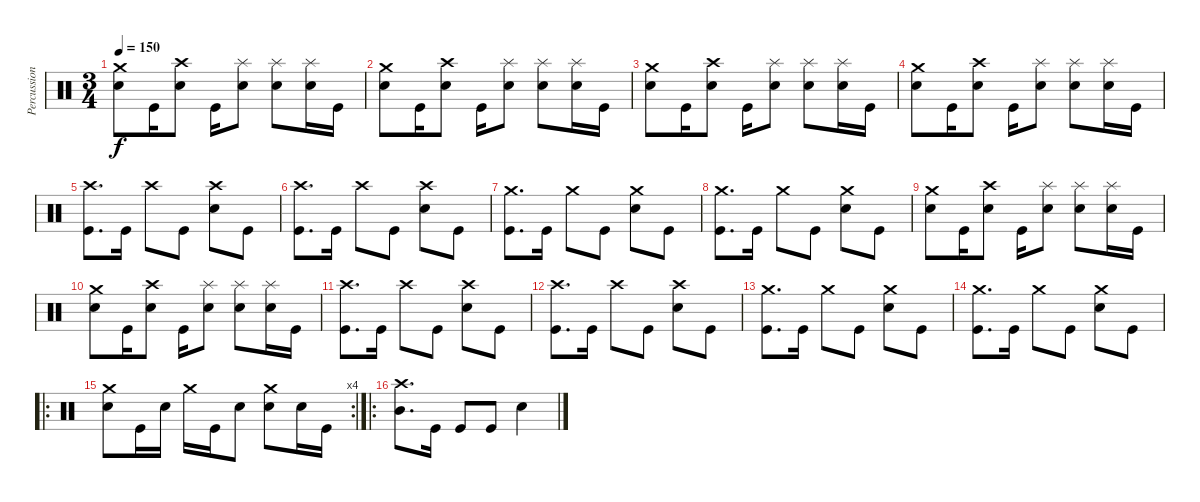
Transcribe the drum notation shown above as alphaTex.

\track ("Percussion" "Percussion") {instrument percussion}
\staff {score}
\articulation defaults
\ts (3 4)
\tempo 150
\clef neutral
\ks c
("Snare (hit) 2" "Crash medium (hit)").8{dy f} "Kick (hit)".16 ("Snare (hit) 2" "Crash high (hit)").8 "Kick (hit)".16 ("Snare (hit) 2" "Splash (hit)").8 ("Snare (hit) 2" "Splash (hit)").8 ("Snare (hit) 2" "Splash (hit)").16 "Kick (hit)".16 |
("Snare (hit) 2" "Crash medium (hit)").8 "Kick (hit)".16 ("Snare (hit) 2" "Crash high (hit)").8 "Kick (hit)".16 ("Snare (hit) 2" "Splash (hit)").8 ("Snare (hit) 2" "Splash (hit)").8 ("Snare (hit) 2" "Splash (hit)").16 "Kick (hit)".16 |
("Snare (hit) 2" "Crash medium (hit)").8 "Kick (hit)".16 ("Snare (hit) 2" "Crash high (hit)").8 "Kick (hit)".16 ("Snare (hit) 2" "Splash (hit)").8 ("Snare (hit) 2" "Splash (hit)").8 ("Snare (hit) 2" "Splash (hit)").16 "Kick (hit)".16 |
("Snare (hit) 2" "Crash medium (hit)").8 "Kick (hit)".16 ("Snare (hit) 2" "Crash high (hit)").8 "Kick (hit)".16 ("Snare (hit) 2" "Splash (hit)").8 ("Snare (hit) 2" "Splash (hit)").8 ("Snare (hit) 2" "Splash (hit)").16 "Kick (hit)".16 |
("Crash high (hit)" "Kick (hit)").8{d} "Kick (hit)".16 "Crash high (hit)".8 "Kick (hit)".8 ("Crash high (hit)" "Snare (hit) 2").8 "Kick (hit)".8 |
("Crash high (hit)" "Kick (hit)").8{d} "Kick (hit)".16 "Crash high (hit)".8 "Kick (hit)".8 ("Crash high (hit)" "Snare (hit) 2").8 "Kick (hit)".8 |
("Crash medium (hit)" "Kick (hit)").8{d} "Kick (hit)".16 "Crash medium (hit)".8 "Kick (hit)".8 ("Crash medium (hit)" "Snare (hit) 2").8 "Kick (hit)".8 |
("Crash medium (hit)" "Kick (hit)").8{d} "Kick (hit)".16 "Crash medium (hit)".8 "Kick (hit)".8 ("Crash medium (hit)" "Snare (hit) 2").8 "Kick (hit)".8 |
("Snare (hit) 2" "Crash medium (hit)").8 "Kick (hit)".16 ("Snare (hit) 2" "Crash high (hit)").8 "Kick (hit)".16 ("Snare (hit) 2" "Splash (hit)").8 ("Snare (hit) 2" "Splash (hit)").8 ("Snare (hit) 2" "Splash (hit)").16 "Kick (hit)".16 |
("Snare (hit) 2" "Crash medium (hit)").8 "Kick (hit)".16 ("Snare (hit) 2" "Crash high (hit)").8 "Kick (hit)".16 ("Snare (hit) 2" "Splash (hit)").8 ("Snare (hit) 2" "Splash (hit)").8 ("Snare (hit) 2" "Splash (hit)").16 "Kick (hit)".16 |
("Crash high (hit)" "Kick (hit)").8{d} "Kick (hit)".16 "Crash high (hit)".8 "Kick (hit)".8 ("Crash high (hit)" "Snare (hit) 2").8 "Kick (hit)".8 |
("Crash high (hit)" "Kick (hit)").8{d} "Kick (hit)".16 "Crash high (hit)".8 "Kick (hit)".8 ("Crash high (hit)" "Snare (hit) 2").8 "Kick (hit)".8 |
("Crash medium (hit)" "Kick (hit)").8{d} "Kick (hit)".16 "Crash medium (hit)".8 "Kick (hit)".8 ("Crash medium (hit)" "Snare (hit) 2").8 "Kick (hit)".8 |
("Crash medium (hit)" "Kick (hit)").8{d} "Kick (hit)".16 "Crash medium (hit)".8 "Kick (hit)".8 ("Crash medium (hit)" "Snare (hit) 2").8 "Kick (hit)".8 |
\ro
\rc 4
("Crash medium (hit)" "Snare (hit) 2").8 "Kick (hit)".16 "Snare (hit) 2".16 "Crash medium (hit)".16 "Kick (hit)".16 "Snare (hit) 2".8 ("Crash medium (hit)" "Snare (hit) 2").8 "Snare (hit) 2".16 "Kick (hit)".16 |
\ro
("Crash high (hit)" "Mid Tom (hit)").8{d} "Kick (hit)".16 "Kick (hit)".8 "Kick (hit)".8 "Snare (hit) 2".4
